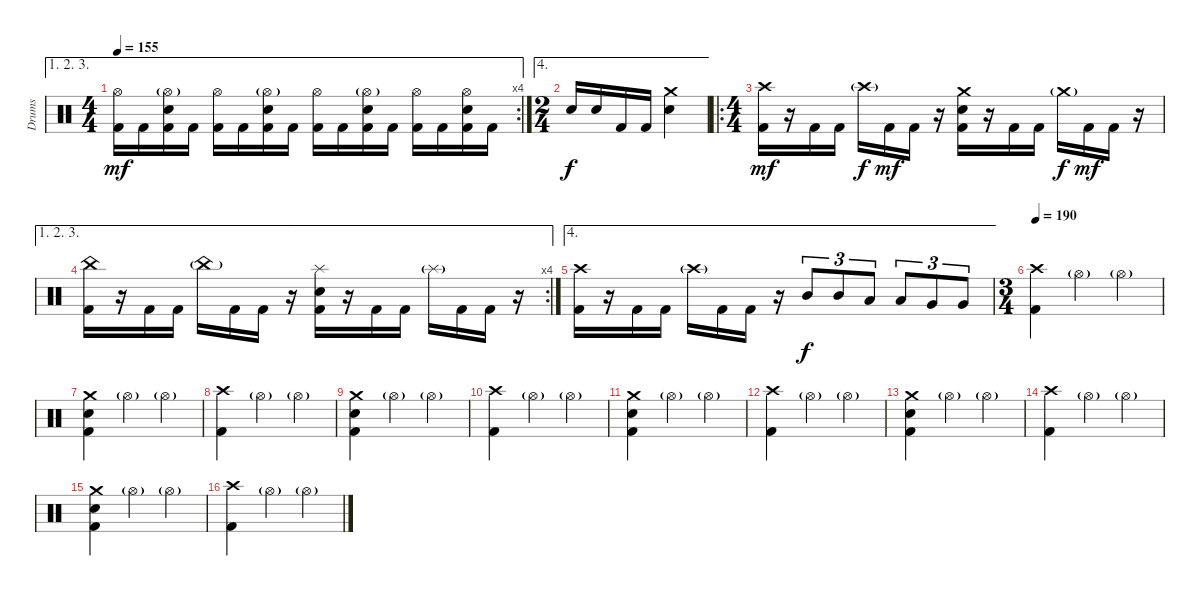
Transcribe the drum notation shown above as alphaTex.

\track ("Drums" "Drums") {instrument percussion}
\staff {score}
\articulation defaults
\ae (1 2 3)
\rc 4
\ts (4 4)
\tempo 155
\clef neutral
\ks c
("Kick (hit) 2" "Hi-Hat (open)").16{dy mf} "Kick (hit) 2".16 ("Kick (hit) 2" "Snare (hit) 2" "Hi-Hat (open)"{g}).16 "Kick (hit) 2".16 ("Kick (hit) 2" "Hi-Hat (open)").16 "Kick (hit) 2".16 ("Kick (hit) 2" "Snare (hit) 2" "Hi-Hat (open)"{g}).16 "Kick (hit) 2".16 ("Kick (hit) 2" "Hi-Hat (open)").16 "Kick (hit) 2".16 ("Kick (hit) 2" "Snare (hit) 2" "Hi-Hat (open)"{g}).16 "Kick (hit) 2".16 ("Kick (hit) 2" "Hi-Hat (open)").16 "Kick (hit) 2".16 ("Kick (hit) 2" "Snare (hit) 2" "Hi-Hat (open)").16 "Kick (hit) 2".16 |
\ae 4
\ts (2 4)
"Snare (hit) 2".16{dy f} "Snare (hit) 2".16 "Kick (hit) 2".16 "Kick (hit) 2".16 ("Snare (hit) 2" "Crash medium (hit)").4 |
\ro
\ts (4 4)
("Kick (hit) 2" "Crash high (hit)").16{dy mf} r.16 "Kick (hit) 2".16 "Kick (hit) 2".16 "Crash high (hit)"{g}.16{dy f} "Kick (hit) 2".16{dy mf} "Kick (hit) 2".16 r.16 ("Kick (hit) 2" "Crash medium (hit)" "Snare (hit) 2").16 r.16 "Kick (hit) 2".16 "Kick (hit) 2".16 "Crash medium (hit)"{g}.16{dy f} "Kick (hit) 2".16{dy mf} "Kick (hit) 2".16 r.16 |
\ae (1 2 3)
\rc 4
("Kick (hit) 2" "China (hit)").16 r.16 "Kick (hit) 2".16 "Kick (hit) 2".16 "China (hit)"{g}.16 "Kick (hit) 2".16 "Kick (hit) 2".16 r.16 ("Kick (hit) 2" "Splash (hit)" "Snare (hit) 2").16 r.16 "Kick (hit) 2".16 "Kick (hit) 2".16 "Splash (hit)"{g}.16 "Kick (hit) 2".16 "Kick (hit) 2".16 r.16 |
\ae 4
("Kick (hit) 2" "Crash high (hit)").16 r.16 "Kick (hit) 2".16 "Kick (hit) 2".16 "Crash high (hit)"{g}.16 "Kick (hit) 2".16 "Kick (hit) 2".16 r.16 "Mid Tom (hit)".8{tu (3 2) dy f} "Mid Tom (hit)".8{tu (3 2)} "Low Tom (hit)".8{tu (3 2)} "Low Tom (hit)".8{tu (3 2)} "Very Low Tom (hit)".8{tu (3 2)} "Very Low Tom (hit)".8{tu (3 2)} |
\ts (3 4)
\tempo 190
("Crash high (hit)" "Kick (hit) 2").4 "Hi-Hat (open)"{g}.4 "Hi-Hat (open)"{g}.4 |
("Crash medium (hit)" "Kick (hit) 2" "Snare (hit) 2").4 "Hi-Hat (open)"{g}.4 "Hi-Hat (open)"{g}.4 |
("Crash high (hit)" "Kick (hit) 2").4 "Hi-Hat (open)"{g}.4 "Hi-Hat (open)"{g}.4 |
("Crash medium (hit)" "Kick (hit) 2" "Snare (hit) 2").4 "Hi-Hat (open)"{g}.4 "Hi-Hat (open)"{g}.4 |
("Crash high (hit)" "Kick (hit) 2").4 "Hi-Hat (open)"{g}.4 "Hi-Hat (open)"{g}.4 |
("Crash medium (hit)" "Kick (hit) 2" "Snare (hit) 2").4 "Hi-Hat (open)"{g}.4 "Hi-Hat (open)"{g}.4 |
("Crash high (hit)" "Kick (hit) 2").4 "Hi-Hat (open)"{g}.4 "Hi-Hat (open)"{g}.4 |
("Crash medium (hit)" "Kick (hit) 2" "Snare (hit) 2").4 "Hi-Hat (open)"{g}.4 "Hi-Hat (open)"{g}.4 |
("Crash high (hit)" "Kick (hit) 2").4 "Hi-Hat (open)"{g}.4 "Hi-Hat (open)"{g}.4 |
("Crash medium (hit)" "Kick (hit) 2" "Snare (hit) 2").4 "Hi-Hat (open)"{g}.4 "Hi-Hat (open)"{g}.4 |
("Crash high (hit)" "Kick (hit) 2").4 "Hi-Hat (open)"{g}.4 "Hi-Hat (open)"{g}.4
